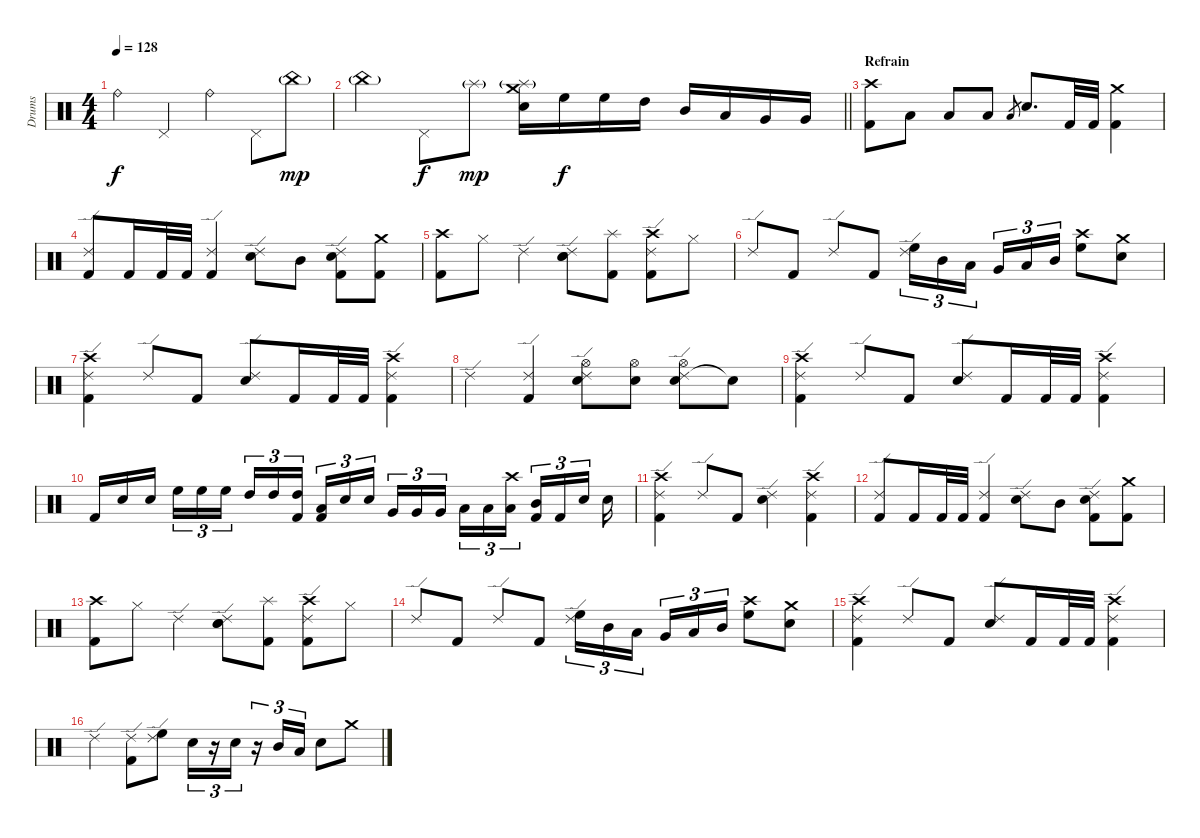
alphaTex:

\track ("Drums" "Drums") {instrument percussion}
\staff {score}
\articulation defaults
\ts (4 4)
\tempo 128
\clef neutral
\ks c "Ride (bell)".4{dy f} "Pedal Hi-Hat (hit)".4 "Ride (bell)".4 "Pedal Hi-Hat (hit)".8 "China (hit)"{g}.8{dy mp}
|
\barLineRight lightlight "China (hit)"{g}.4 "Pedal Hi-Hat (hit)".8{dy f} "Splash (hit)"{g}.8{dy mp}
("Splash (hit)"{g} "Snare (hit) 2" "Crash medium (hit)").16 "High Floor Tom (hit)".16{dy f} "High Floor Tom (hit)".16 "High Tom (hit)".16 "Mid Tom (hit)".16 "Low Tom (hit)".16 "Very Low Tom (hit)".16 "Very Low Tom (hit)".16 |
\section ("" "Refrain")
("Crash high (hit)" "Kick (hit) 2").8 "Low Tom (hit)".8 "Low Tom (hit)".8 "Low Tom (hit)".8 "Low Tom (hit)".8{gr} "Snare (hit) 2".8{d} "Kick (hit) 2".32 "Kick (hit) 2".32 ("Crash medium (hit)" "Kick (hit) 2").4 |
("Ride (edge) 2" "Kick (hit) 2").8 "Kick (hit) 2".16 "Kick (hit) 2".32 "Kick (hit) 2".32 ("Ride (edge) 2" "Kick (hit) 2").4 ("Ride (edge) 2" "Snare (hit) 2").8 "Mid Tom (hit)".8 ("Ride (edge) 2" "Snare (hit) 2" "Kick (hit) 2").8 ("Crash medium (hit)" "Kick (hit) 2").8 |
("Crash high (hit)" "Kick (hit) 2").8 "Hi-Hat (closed)".8 "Ride (edge) 2".4 ("Ride (edge) 2" "Snare (hit) 2" "Snare (hit)").8 ("Splash (hit)" "Kick (hit) 2").8 ("Ride (edge) 2" "Crash high (hit)" "Kick (hit) 2").8 "Hi-Hat (closed)".8 |
"Ride (edge) 2".8 "Kick (hit) 2".8 "Ride (edge) 2".8 "Kick (hit) 2".8 ("Ride (edge) 2" "High Floor Tom (hit)").16{tu (3 2)} "Mid Tom (hit)".16{tu (3 2)} "Low Tom (hit)".16{tu (3 2) beam splitsecondary} "Very Low Tom (hit)".16{tu (3 2)} "Low Tom (hit)".16{tu (3 2)} "Mid Tom (hit)".16{tu (3 2)} ("Crash high (hit)" "High Floor Tom (hit)").8 ("Crash medium (hit)" "Snare (hit) 2").8 |
("Ride (edge) 2" "Crash high (hit)" "Kick (hit) 2").4 "Ride (edge) 2".8 "Kick (hit) 2".8 ("Ride (edge) 2" "Snare (hit) 2").8 "Kick (hit) 2".16 "Kick (hit) 2".32 "Kick (hit) 2".32 ("Ride (edge) 2" "Crash high (hit)" "Kick (hit) 2").4 |
"Ride (edge) 2".4 ("Ride (edge) 2" "Kick (hit) 2").4 ("Ride (edge) 2" "Snare (hit) 2" "Hi-Hat (open)").8 ("Snare (hit) 2" "Hi-Hat (open)").8 ("Ride (edge) 2" "Snare (hit) 2" "Hi-Hat (open)").8 "Snare (hit)"{t}.8 |
("Ride (edge) 2" "Crash high (hit)" "Kick (hit) 2").4 "Ride (edge) 2".8 "Kick (hit) 2".8 ("Ride (edge) 2" "Snare (hit) 2").8 "Kick (hit) 2".16 "Kick (hit) 2".32 "Kick (hit) 2".32 ("Ride (edge) 2" "Crash high (hit)" "Kick (hit) 2").4 |
"Kick (hit) 2".16 "Snare (hit) 2".16 "Snare (hit) 2".16{beam splitsecondary} "High Floor Tom (hit)".16{tu (3 2)} "High Floor Tom (hit)".16{tu (3 2)} "High Floor Tom (hit)".16{tu (3 2) beam splitsecondary} "High Tom (hit)".16{tu (3 2)} "High Tom (hit)".16{tu (3 2)} ("High Tom (hit)" "Kick (hit) 2").16{tu (3 2) beam splitsecondary} ("Low Tom (hit)" "Kick (hit) 2").16{tu (3 2)} "Snare (hit) 2".16{tu (3 2)} "Snare (hit) 2".16{tu (3 2) beam splitsecondary} "Very Low Tom (hit)".16{tu (3 2)} "Very Low Tom (hit)".16{tu (3 2)} "Very Low Tom (hit)".16{tu (3 2) beam splitsecondary} "Low Tom (hit)".16{tu (3 2)} "Low Tom (hit)".16{tu (3 2)} ("Low Tom (hit)" "Crash high (hit)").16{tu (3 2) beam splitsecondary} ("Mid Tom (hit)" "Kick (hit) 2").16{tu (3 2)} "Kick (hit) 2".16{tu (3 2)} "Snare (hit) 2".16{tu (3 2) beam splitsecondary} "Snare (hit) 2".16 |
("Ride (edge) 2" "Crash high (hit)" "Kick (hit) 2").4 "Ride (edge) 2".8 "Kick (hit) 2".8 ("Ride (edge) 2" "Snare (hit) 2").4 ("Ride (edge) 2" "Crash high (hit)" "Kick (hit) 2").4 |
("Ride (edge) 2" "Kick (hit) 2").8 "Kick (hit) 2".16 "Kick (hit) 2".32 "Kick (hit) 2".32 ("Ride (edge) 2" "Kick (hit) 2").4 ("Ride (edge) 2" "Snare (hit) 2").8 "Mid Tom (hit)".8 ("Ride (edge) 2" "Snare (hit) 2" "Kick (hit) 2").8 ("Crash medium (hit)" "Kick (hit) 2").8 |
("Crash high (hit)" "Kick (hit) 2").8 "Hi-Hat (closed)".8 "Ride (edge) 2".4 ("Ride (edge) 2" "Snare (hit) 2" "Snare (hit)").8 ("Splash (hit)" "Kick (hit) 2").8 ("Ride (edge) 2" "Crash high (hit)" "Kick (hit) 2").8 "Hi-Hat (closed)".8 |
"Ride (edge) 2".8 "Kick (hit) 2".8 "Ride (edge) 2".8 "Kick (hit) 2".8 ("Ride (edge) 2" "High Floor Tom (hit)").16{tu (3 2)} "Mid Tom (hit)".16{tu (3 2)} "Low Tom (hit)".16{tu (3 2) beam splitsecondary} "Very Low Tom (hit)".16{tu (3 2)} "Low Tom (hit)".16{tu (3 2)} "Mid Tom (hit)".16{tu (3 2)} ("Crash high (hit)" "High Floor Tom (hit)").8 ("Crash medium (hit)" "Snare (hit) 2").8 |
("Ride (edge) 2" "Crash high (hit)" "Kick (hit) 2").4 "Ride (edge) 2".8 "Kick (hit) 2".8 ("Ride (edge) 2" "Snare (hit) 2").8 "Kick (hit) 2".16 "Kick (hit) 2".32 "Kick (hit) 2".32 ("Ride (edge) 2" "Crash high (hit)" "Kick (hit) 2").4 |
"Ride (edge) 2".4 ("Ride (edge) 2" "Kick (hit) 2").8 ("Ride (edge) 2" "High Floor Tom (hit)").8 "Snare (hit) 2".16{tu (3 2)} r.16{tu (3 2)} "Snare (hit) 2".16{tu (3 2)} r.16{tu (3 2)} "Mid Tom (hit)".16{tu (3 2)} "Low Tom (hit)".16{tu (3 2)} "Snare (hit) 2".8 "Crash medium (hit)".8
